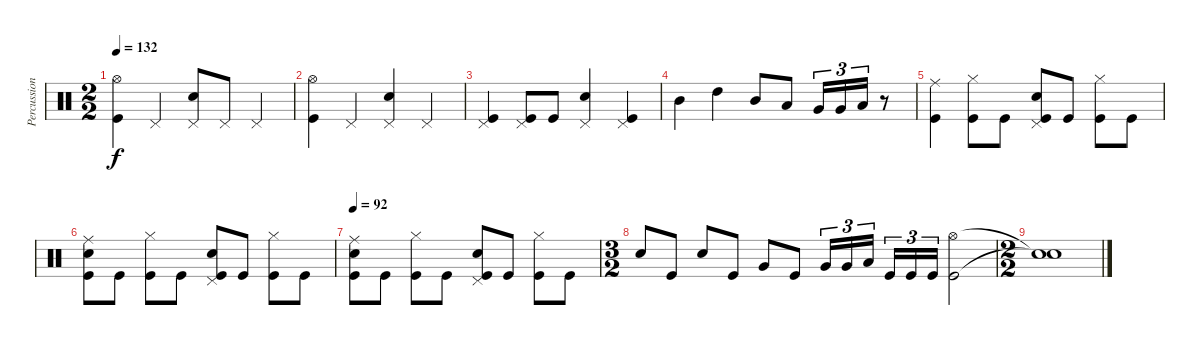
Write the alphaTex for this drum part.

\track ("Percussion" "Percussion") {instrument percussion}
\staff {score}
\articulation defaults
\ts (2 2)
\tempo 132
\clef neutral
\ks c
("Hi-Hat (open)" "Kick (hit)").4{dy f} "Pedal Hi-Hat (hit)".4 ("Electric Snare (hit)" "Pedal Hi-Hat (hit)").8 "Pedal Hi-Hat (hit)".8 "Pedal Hi-Hat (hit)".4 |
("Hi-Hat (open)" "Kick (hit)").4 "Pedal Hi-Hat (hit)".4 ("Electric Snare (hit)" "Pedal Hi-Hat (hit)").4 "Pedal Hi-Hat (hit)".4 |
("Pedal Hi-Hat (hit)" "Kick (hit)").4 ("Pedal Hi-Hat (hit)" "Kick (hit)").8 "Kick (hit)".8 ("Pedal Hi-Hat (hit)" "Electric Snare (hit)").4 ("Pedal Hi-Hat (hit)" "Kick (hit)").4 |
"Mid Tom (hit)".4 "High Tom (hit)".4 "Mid Tom (hit)".8 "Low Tom (hit)".8 "Very Low Tom (hit)".16{tu (3 2)} "Very Low Tom (hit)".16{tu (3 2)} "Low Floor Tom (hit)".16{tu (3 2)} r.8 |
("Kick (hit)" "Ride (middle)").4 ("Kick (hit)" "Hi-Hat (closed)").8 "Kick (hit)".8 ("Pedal Hi-Hat (hit)" "Kick (hit)" "Electric Snare (hit)").8 "Kick (hit)".8 ("Hi-Hat (closed)" "Kick (hit)").8 "Kick (hit)".8 |
("Ride (middle)" "Electric Snare (hit)" "Kick (hit)").8 "Kick (hit)".8 ("Hi-Hat (closed)" "Kick (hit)").8 "Kick (hit)".8 ("Pedal Hi-Hat (hit)" "Electric Snare (hit)" "Kick (hit)").8 "Kick (hit)".8 ("Hi-Hat (closed)" "Kick (hit)").8 "Kick (hit)".8 |
\tempo 92
("Ride (middle)" "Electric Snare (hit)" "Kick (hit)").8 "Kick (hit)".8 ("Hi-Hat (closed)" "Kick (hit)").8 "Kick (hit)".8 ("Pedal Hi-Hat (hit)" "Electric Snare (hit)" "Kick (hit)").8 "Kick (hit)".8 ("Hi-Hat (closed)" "Kick (hit)").8 "Kick (hit)".8 |
\ts (3 2)
"Electric Snare (hit)".8 "Kick (hit)".8 "Electric Snare (hit)".8 "Kick (hit)".8 "Very Low Tom (hit)".8 "Kick (hit)".8 "Very Low Tom (hit)".16{tu (3 2)} "Very Low Tom (hit)".16{tu (3 2)} "Low Floor Tom (hit)".16{tu (3 2)} "Kick (hit)".16{tu (3 2)} "Kick (hit)".16{tu (3 2)} "Kick (hit)".16{tu (3 2)} ("Kick (hit)" "Hi-Hat (open)").2 |
\ts (2 2)
("Snare (hit)"{t} "Snare (hit)"{t}).1
